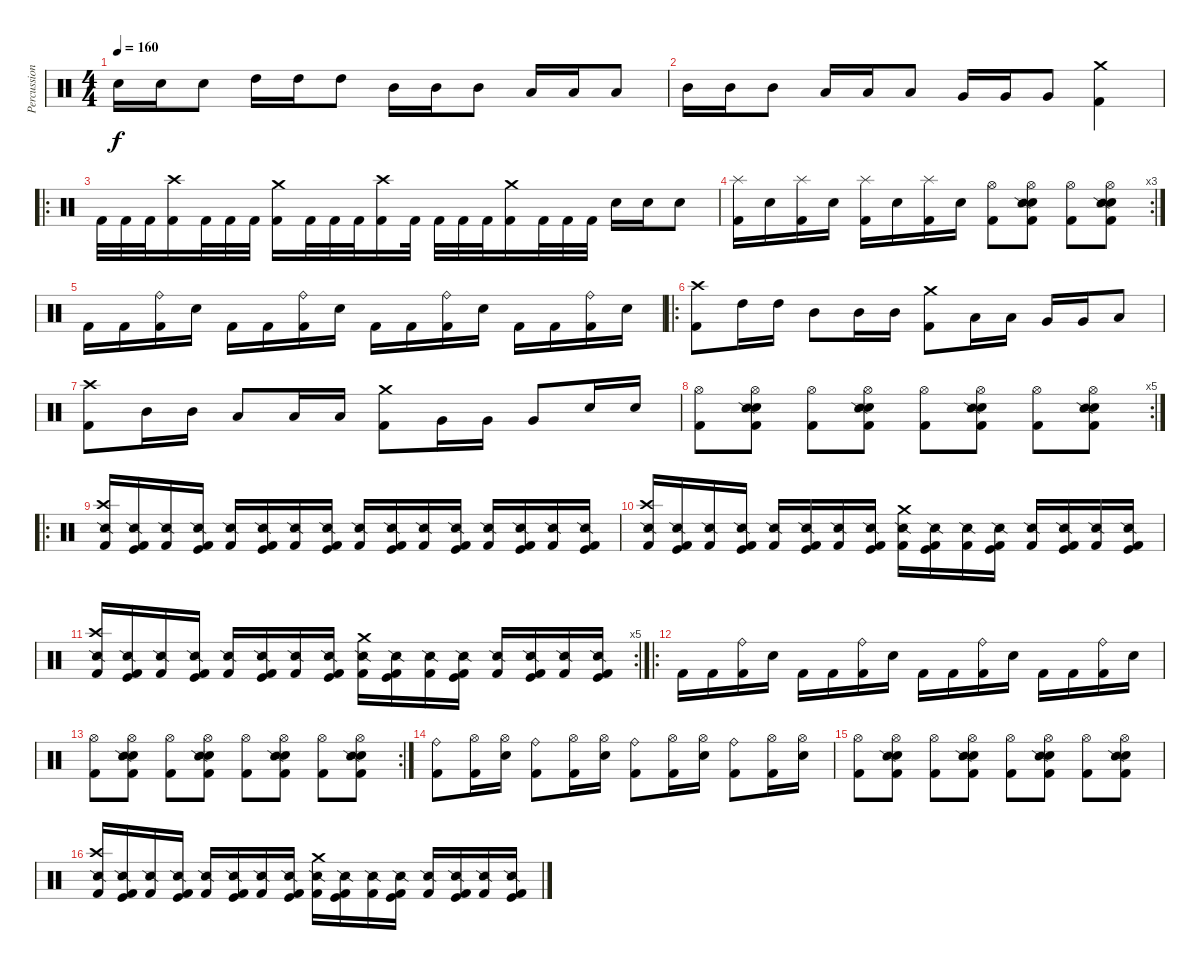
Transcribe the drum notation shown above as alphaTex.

\track ("Percussion" "Percussion") {instrument percussion}
\staff {score}
\articulation defaults
\ts (4 4)
\tempo 160
\clef neutral
\ks c "Electric Snare (hit)".16{dy f} "Electric Snare (hit)".16 "Electric Snare (hit)".8 "High Tom (hit)".16 "High Tom (hit)".16 "High Tom (hit)".8 "Mid Tom (hit)".16 "Mid Tom (hit)".16 "Mid Tom (hit)".8 "Low Tom (hit)".16 "Low Tom (hit)".16 "Low Tom (hit)".8
|
"Mid Tom (hit)".16 "Mid Tom (hit)".16 "Mid Tom (hit)".8 "Low Tom (hit)".16 "Low Tom (hit)".16 "Low Tom (hit)".8 "Very Low Tom (hit)".16 "Very Low Tom (hit)".16 "Very Low Tom (hit)".8 ("Crash medium (hit)" "Kick (hit) 2").4 |
\ro "Kick (hit) 2".32 "Kick (hit) 2".32 "Kick (hit) 2".32
("Crash high (hit)" "Kick (hit) 2").16 "Kick (hit) 2".32 "Kick (hit) 2".32 "Kick (hit) 2".32 ("Crash medium (hit)" "Kick (hit) 2").16 "Kick (hit) 2".32 "Kick (hit) 2".32 "Kick (hit) 2".32 ("Crash high (hit)" "Kick (hit) 2").16 "Kick (hit) 2".32 "Kick (hit) 2".32 "Kick (hit) 2".32 "Kick (hit) 2".32 ("Crash medium (hit)" "Kick (hit) 2").16 "Kick (hit) 2".32 "Kick (hit) 2".32 "Kick (hit) 2".32 "Electric Snare (hit)".16 "Electric Snare (hit)".16 "Electric Snare (hit)".8 |
\rc 3
("Splash (hit)" "Kick (hit) 2").16 "Electric Snare (hit)".16 ("Splash (hit)" "Kick (hit) 2").16 "Electric Snare (hit)".16 ("Splash (hit)" "Kick (hit) 2").16 "Electric Snare (hit)".16 ("Splash (hit)" "Kick (hit) 2").16 "Electric Snare (hit)".16 ("Hi-Hat (open)" "Kick (hit) 2").8 ("Hi-Hat (open)" "Electric Snare (hit)" "Snare (side stick) 2" "Kick (hit) 2").8 ("Hi-Hat (open)" "Kick (hit) 2").8 ("Hi-Hat (open)" "Electric Snare (hit)" "Snare (side stick) 2" "Kick (hit) 2").8 |
"Kick (hit) 2".16 "Kick (hit) 2".16 ("Ride (bell)" "Kick (hit) 2").16 "Electric Snare (hit)".16 "Kick (hit) 2".16 "Kick (hit) 2".16 ("Ride (bell)" "Kick (hit) 2").16 "Electric Snare (hit)".16 "Kick (hit) 2".16 "Kick (hit) 2".16 ("Ride (bell)" "Kick (hit) 2").16 "Electric Snare (hit)".16 "Kick (hit) 2".16 "Kick (hit) 2".16 ("Ride (bell)" "Kick (hit) 2").16 "Electric Snare (hit)".16 |
\ro
("Crash high (hit)" "Kick (hit) 2").8 "High Tom (hit)".16 "High Tom (hit)".16 "Mid Tom (hit)".8 "Mid Tom (hit)".16 "Mid Tom (hit)".16 ("Crash medium (hit)" "Kick (hit) 2").8 "Low Tom (hit)".16 "Low Tom (hit)".16 "Very Low Tom (hit)".16 "Very Low Tom (hit)".16 "Low Floor Tom (hit)".8 |
("Crash high (hit)" "Kick (hit) 2").8 "Mid Tom (hit)".16 "Mid Tom (hit)".16 "Low Tom (hit)".8 "Low Tom (hit)".16 "Low Tom (hit)".16 ("Crash medium (hit)" "Kick (hit) 2").8 "Very Low Tom (hit)".16 "Very Low Tom (hit)".16 "Very Low Tom (hit)".8 "Electric Snare (hit)".16 "Electric Snare (hit)".16 |
\rc 5
("Hi-Hat (open)" "Kick (hit) 2").8 ("Hi-Hat (open)" "Electric Snare (hit)" "Snare (side stick) 2" "Kick (hit) 2").8 ("Hi-Hat (open)" "Kick (hit) 2").8 ("Hi-Hat (open)" "Electric Snare (hit)" "Snare (side stick) 2" "Kick (hit) 2").8 ("Hi-Hat (open)" "Kick (hit) 2").8 ("Hi-Hat (open)" "Electric Snare (hit)" "Snare (side stick) 2" "Kick (hit) 2").8 ("Hi-Hat (open)" "Kick (hit) 2").8 ("Hi-Hat (open)" "Electric Snare (hit)" "Snare (side stick) 2" "Kick (hit) 2").8 |
\ro
("Crash high (hit)" "Snare (side stick) 2" "Kick (hit) 2").16 ("Kick (hit)" "Snare (side stick) 2" "Kick (hit) 2").16 ("Snare (side stick) 2" "Kick (hit) 2").16 ("Kick (hit)" "Snare (side stick) 2" "Kick (hit) 2").16 ("Snare (side stick) 2" "Kick (hit) 2").16 ("Kick (hit)" "Snare (side stick) 2" "Kick (hit) 2").16 ("Snare (side stick) 2" "Kick (hit) 2").16 ("Kick (hit)" "Snare (side stick) 2" "Kick (hit) 2").16 ("Snare (side stick) 2" "Kick (hit) 2").16 ("Kick (hit)" "Snare (side stick) 2" "Kick (hit) 2").16 ("Snare (side stick) 2" "Kick (hit) 2").16 ("Kick (hit)" "Snare (side stick) 2" "Kick (hit) 2").16 ("Snare (side stick) 2" "Kick (hit) 2").16 ("Kick (hit)" "Snare (side stick) 2" "Kick (hit) 2").16 ("Snare (side stick) 2" "Kick (hit) 2").16 ("Kick (hit)" "Snare (side stick) 2" "Kick (hit) 2").16 |
("Crash high (hit)" "Snare (side stick) 2" "Kick (hit) 2").16 ("Kick (hit)" "Snare (side stick) 2" "Kick (hit) 2").16 ("Snare (side stick) 2" "Kick (hit) 2").16 ("Kick (hit)" "Snare (side stick) 2" "Kick (hit) 2").16 ("Snare (side stick) 2" "Kick (hit) 2").16 ("Kick (hit)" "Snare (side stick) 2" "Kick (hit) 2").16 ("Snare (side stick) 2" "Kick (hit) 2").16 ("Kick (hit)" "Snare (side stick) 2" "Kick (hit) 2").16 ("Crash medium (hit)" "Snare (side stick) 2" "Kick (hit) 2").16 ("Kick (hit)" "Snare (side stick) 2" "Kick (hit) 2").16 ("Snare (side stick) 2" "Kick (hit) 2").16 ("Kick (hit)" "Snare (side stick) 2" "Kick (hit) 2").16 ("Snare (side stick) 2" "Kick (hit) 2").16 ("Kick (hit)" "Snare (side stick) 2" "Kick (hit) 2").16 ("Snare (side stick) 2" "Kick (hit) 2").16 ("Kick (hit)" "Snare (side stick) 2" "Kick (hit) 2").16 |
\rc 5
("Crash high (hit)" "Snare (side stick) 2" "Kick (hit) 2").16 ("Kick (hit)" "Snare (side stick) 2" "Kick (hit) 2").16 ("Snare (side stick) 2" "Kick (hit) 2").16 ("Kick (hit)" "Snare (side stick) 2" "Kick (hit) 2").16 ("Snare (side stick) 2" "Kick (hit) 2").16 ("Kick (hit)" "Snare (side stick) 2" "Kick (hit) 2").16 ("Snare (side stick) 2" "Kick (hit) 2").16 ("Kick (hit)" "Snare (side stick) 2" "Kick (hit) 2").16 ("Crash medium (hit)" "Snare (side stick) 2" "Kick (hit) 2").16 ("Kick (hit)" "Snare (side stick) 2" "Kick (hit) 2").16 ("Snare (side stick) 2" "Kick (hit) 2").16 ("Kick (hit)" "Snare (side stick) 2" "Kick (hit) 2").16 ("Snare (side stick) 2" "Kick (hit) 2").16 ("Kick (hit)" "Snare (side stick) 2" "Kick (hit) 2").16 ("Snare (side stick) 2" "Kick (hit) 2").16 ("Kick (hit)" "Snare (side stick) 2" "Kick (hit) 2").16 |
\ro "Kick (hit) 2".16 "Kick (hit) 2".16
("Ride (bell)" "Kick (hit) 2").16 "Electric Snare (hit)".16 "Kick (hit) 2".16 "Kick (hit) 2".16 ("Ride (bell)" "Kick (hit) 2").16 "Electric Snare (hit)".16 "Kick (hit) 2".16 "Kick (hit) 2".16 ("Ride (bell)" "Kick (hit) 2").16 "Electric Snare (hit)".16 "Kick (hit) 2".16 "Kick (hit) 2".16 ("Ride (bell)" "Kick (hit) 2").16 "Electric Snare (hit)".16 |
\rc 2
("Hi-Hat (open)" "Kick (hit) 2").8 ("Hi-Hat (open)" "Electric Snare (hit)" "Snare (side stick) 2" "Kick (hit) 2").8 ("Hi-Hat (open)" "Kick (hit) 2").8 ("Hi-Hat (open)" "Electric Snare (hit)" "Snare (side stick) 2" "Kick (hit) 2").8 ("Hi-Hat (open)" "Kick (hit) 2").8 ("Hi-Hat (open)" "Electric Snare (hit)" "Snare (side stick) 2" "Kick (hit) 2").8 ("Hi-Hat (open)" "Kick (hit) 2").8 ("Hi-Hat (open)" "Electric Snare (hit)" "Snare (side stick) 2" "Kick (hit) 2").8 |
("Ride (bell)" "Kick (hit) 2").8 ("Hi-Hat (open)" "Kick (hit) 2").16 ("Hi-Hat (open)" "Electric Snare (hit)").16 ("Ride (bell)" "Kick (hit) 2").8 ("Hi-Hat (open)" "Kick (hit) 2").16 ("Hi-Hat (open)" "Electric Snare (hit)").16 ("Ride (bell)" "Kick (hit) 2").8 ("Hi-Hat (open)" "Kick (hit) 2").16 ("Hi-Hat (open)" "Electric Snare (hit)").16 ("Ride (bell)" "Kick (hit) 2").8 ("Hi-Hat (open)" "Kick (hit) 2").16 ("Hi-Hat (open)" "Electric Snare (hit)").16 |
("Hi-Hat (open)" "Kick (hit) 2").8 ("Hi-Hat (open)" "Electric Snare (hit)" "Snare (side stick) 2" "Kick (hit) 2").8 ("Hi-Hat (open)" "Kick (hit) 2").8 ("Hi-Hat (open)" "Electric Snare (hit)" "Snare (side stick) 2" "Kick (hit) 2").8 ("Hi-Hat (open)" "Kick (hit) 2").8 ("Hi-Hat (open)" "Electric Snare (hit)" "Snare (side stick) 2" "Kick (hit) 2").8 ("Hi-Hat (open)" "Kick (hit) 2").8 ("Hi-Hat (open)" "Electric Snare (hit)" "Snare (side stick) 2" "Kick (hit) 2").8 |
("Crash high (hit)" "Snare (side stick) 2" "Kick (hit) 2").16 ("Kick (hit)" "Snare (side stick) 2" "Kick (hit) 2").16 ("Snare (side stick) 2" "Kick (hit) 2").16 ("Kick (hit)" "Snare (side stick) 2" "Kick (hit) 2").16 ("Snare (side stick) 2" "Kick (hit) 2").16 ("Kick (hit)" "Snare (side stick) 2" "Kick (hit) 2").16 ("Snare (side stick) 2" "Kick (hit) 2").16 ("Kick (hit)" "Snare (side stick) 2" "Kick (hit) 2").16 ("Crash medium (hit)" "Snare (side stick) 2" "Kick (hit) 2").16 ("Kick (hit)" "Snare (side stick) 2" "Kick (hit) 2").16 ("Snare (side stick) 2" "Kick (hit) 2").16 ("Kick (hit)" "Snare (side stick) 2" "Kick (hit) 2").16 ("Snare (side stick) 2" "Kick (hit) 2").16 ("Kick (hit)" "Snare (side stick) 2" "Kick (hit) 2").16 ("Snare (side stick) 2" "Kick (hit) 2").16 ("Kick (hit)" "Snare (side stick) 2" "Kick (hit) 2").16
